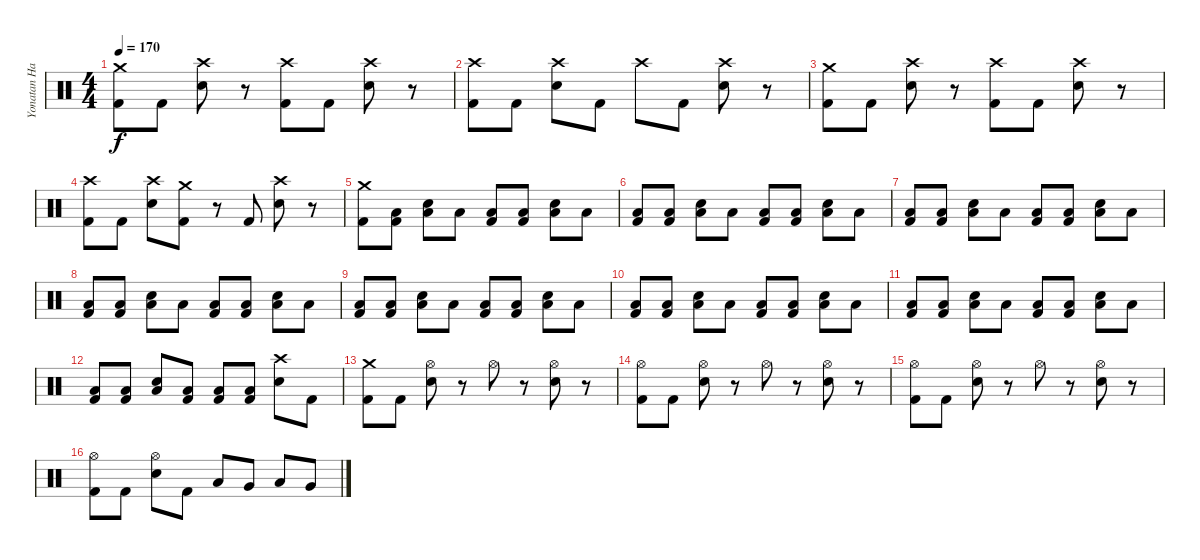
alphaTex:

\track ("Yonatan Harpak (drums)" "Yonatan Ha") {instrument percussion}
\staff {score}
\articulation defaults
\ts (4 4)
\tempo 170
\clef neutral
\ks c
("Crash medium (hit)" "Kick (hit) 2").8{dy f} "Kick (hit) 2".8 ("Crash high (hit)" "Snare (hit) 2").8 r.8 ("Crash high (hit)" "Kick (hit) 2").8 "Kick (hit) 2".8 ("Crash high (hit)" "Snare (hit) 2").8 r.8 |
("Crash high (hit)" "Kick (hit) 2").8 "Kick (hit) 2".8 ("Crash high (hit)" "Snare (hit) 2").8 "Kick (hit) 2".8 "Crash high (hit)".8 "Kick (hit) 2".8 ("Crash high (hit)" "Snare (hit) 2").8 r.8 |
("Crash medium (hit)" "Kick (hit) 2").8 "Kick (hit) 2".8 ("Crash high (hit)" "Snare (hit) 2").8 r.8 ("Crash high (hit)" "Kick (hit) 2").8 "Kick (hit) 2".8 ("Crash high (hit)" "Snare (hit) 2").8 r.8 |
("Crash high (hit)" "Kick (hit) 2").8 "Kick (hit) 2".8 ("Crash high (hit)" "Snare (hit) 2").8 ("Crash medium (hit)" "Kick (hit) 2").8 r.8 "Kick (hit) 2".8 ("Crash high (hit)" "Snare (hit) 2").8 r.8 |
("Crash medium (hit)" "Kick (hit) 2").8 ("Low Floor Tom (hit)" "Kick (hit) 2").8 ("Low Floor Tom (hit)" "Snare (hit) 2").8 "Low Floor Tom (hit)".8 ("Low Floor Tom (hit)" "Kick (hit) 2").8 ("Low Floor Tom (hit)" "Kick (hit) 2").8 ("Low Floor Tom (hit)" "Snare (hit) 2").8 "Low Floor Tom (hit)".8 |
("Low Floor Tom (hit)" "Kick (hit) 2").8 ("Low Floor Tom (hit)" "Kick (hit) 2").8 ("Low Floor Tom (hit)" "Snare (hit) 2").8 "Low Floor Tom (hit)".8 ("Low Floor Tom (hit)" "Kick (hit) 2").8 ("Low Floor Tom (hit)" "Kick (hit) 2").8 ("Low Floor Tom (hit)" "Snare (hit) 2").8 "Low Floor Tom (hit)".8 |
("Low Floor Tom (hit)" "Kick (hit) 2").8 ("Low Floor Tom (hit)" "Kick (hit) 2").8 ("Low Floor Tom (hit)" "Snare (hit) 2").8 "Low Floor Tom (hit)".8 ("Low Floor Tom (hit)" "Kick (hit) 2").8 ("Low Floor Tom (hit)" "Kick (hit) 2").8 ("Low Floor Tom (hit)" "Snare (hit) 2").8 "Low Floor Tom (hit)".8 |
("Low Floor Tom (hit)" "Kick (hit) 2").8 ("Low Floor Tom (hit)" "Kick (hit) 2").8 ("Low Floor Tom (hit)" "Snare (hit) 2").8 "Low Floor Tom (hit)".8 ("Low Floor Tom (hit)" "Kick (hit) 2").8 ("Low Floor Tom (hit)" "Kick (hit) 2").8 ("Low Floor Tom (hit)" "Snare (hit) 2").8 "Low Floor Tom (hit)".8 |
("Low Floor Tom (hit)" "Kick (hit) 2").8 ("Low Floor Tom (hit)" "Kick (hit) 2").8 ("Low Floor Tom (hit)" "Snare (hit) 2").8 "Low Floor Tom (hit)".8 ("Low Floor Tom (hit)" "Kick (hit) 2").8 ("Low Floor Tom (hit)" "Kick (hit) 2").8 ("Low Floor Tom (hit)" "Snare (hit) 2").8 "Low Floor Tom (hit)".8 |
("Low Floor Tom (hit)" "Kick (hit) 2").8 ("Low Floor Tom (hit)" "Kick (hit) 2").8 ("Low Floor Tom (hit)" "Snare (hit) 2").8 "Low Floor Tom (hit)".8 ("Low Floor Tom (hit)" "Kick (hit) 2").8 ("Low Floor Tom (hit)" "Kick (hit) 2").8 ("Low Floor Tom (hit)" "Snare (hit) 2").8 "Low Floor Tom (hit)".8 |
("Low Floor Tom (hit)" "Kick (hit) 2").8 ("Low Floor Tom (hit)" "Kick (hit) 2").8 ("Low Floor Tom (hit)" "Snare (hit) 2").8 "Low Floor Tom (hit)".8 ("Low Floor Tom (hit)" "Kick (hit) 2").8 ("Low Floor Tom (hit)" "Kick (hit) 2").8 ("Low Floor Tom (hit)" "Snare (hit) 2").8 "Low Floor Tom (hit)".8 |
("Low Floor Tom (hit)" "Kick (hit) 2").8 ("Low Floor Tom (hit)" "Kick (hit) 2").8 ("Low Floor Tom (hit)" "Snare (hit) 2").8 ("Low Floor Tom (hit)" "Kick (hit) 2").8 ("Low Floor Tom (hit)" "Kick (hit) 2").8 ("Low Floor Tom (hit)" "Kick (hit) 2").8 ("Crash high (hit)" "Snare (hit) 2").8 "Kick (hit) 2".8 |
("Crash medium (hit)" "Kick (hit) 2").8 "Kick (hit) 2".8 ("Hi-Hat (open)" "Snare (hit) 2").8 r.8 "Hi-Hat (open)".8 r.8 ("Hi-Hat (open)" "Snare (hit) 2").8 r.8 |
("Hi-Hat (open)" "Kick (hit) 2").8 "Kick (hit) 2".8 ("Hi-Hat (open)" "Snare (hit) 2").8 r.8 "Hi-Hat (open)".8 r.8 ("Hi-Hat (open)" "Snare (hit) 2").8 r.8 |
("Hi-Hat (open)" "Kick (hit) 2").8 "Kick (hit) 2".8 ("Hi-Hat (open)" "Snare (hit) 2").8 r.8 "Hi-Hat (open)".8 r.8 ("Hi-Hat (open)" "Snare (hit) 2").8 r.8 |
("Hi-Hat (open)" "Kick (hit) 2").8 "Kick (hit) 2".8 ("Hi-Hat (open)" "Snare (hit) 2").8 "Kick (hit) 2".8 "Low Tom (hit)".8 "Very Low Tom (hit)".8 "Low Floor Tom (hit)".8 "Very Low Tom (hit)".8
